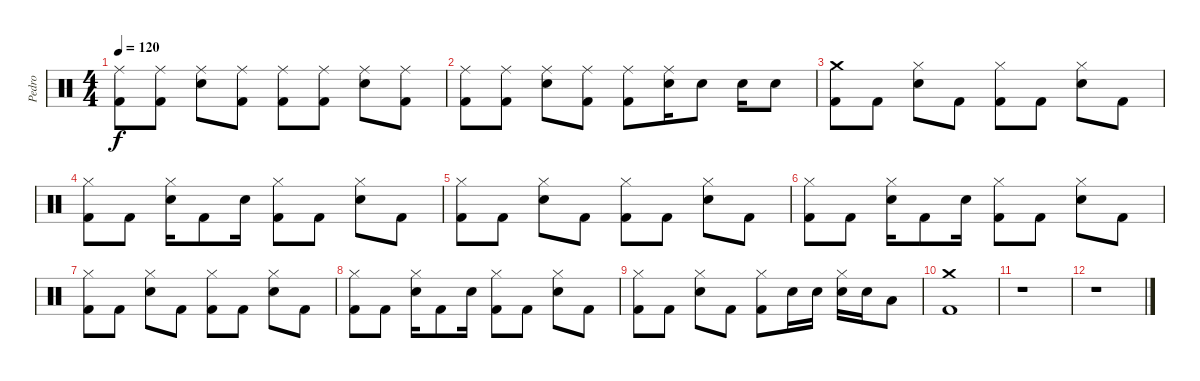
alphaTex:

\track ("Pedro" "Pedro") {instrument percussion}
\staff {score}
\articulation defaults
\ts (4 4)
\tempo 120
\clef neutral
\ks c
("Ride (middle)" "Kick (hit) 2").8{dy f} ("Ride (middle)" "Kick (hit) 2").8 ("Ride (middle)" "Snare (hit) 2").8 ("Ride (middle)" "Kick (hit) 2").8 ("Ride (middle)" "Kick (hit) 2").8 ("Ride (middle)" "Kick (hit) 2").8 ("Ride (middle)" "Snare (hit) 2").8 ("Ride (middle)" "Kick (hit) 2").8 |
("Ride (middle)" "Kick (hit) 2").8 ("Ride (middle)" "Kick (hit) 2").8 ("Ride (middle)" "Snare (hit) 2").8 ("Ride (middle)" "Kick (hit) 2").8 ("Ride (middle)" "Kick (hit) 2").8 ("Ride (middle)" "Snare (hit) 2").16 "Snare (hit) 2".8 "Snare (hit) 2".16 "Snare (hit) 2".8 |
("Crash medium (hit)" "Kick (hit) 2").8 "Kick (hit) 2".8 ("Hi-Hat (closed)" "Snare (hit) 2").8 "Kick (hit) 2".8 ("Hi-Hat (closed)" "Kick (hit) 2").8 "Kick (hit) 2".8 ("Hi-Hat (closed)" "Snare (hit) 2").8 "Kick (hit) 2".8 |
("Hi-Hat (closed)" "Kick (hit) 2").8 "Kick (hit) 2".8 ("Hi-Hat (closed)" "Snare (hit) 2").16 "Kick (hit) 2".8 "Snare (hit) 2".16 ("Hi-Hat (closed)" "Kick (hit) 2").8 "Kick (hit) 2".8 ("Hi-Hat (closed)" "Snare (hit) 2").8 "Kick (hit) 2".8 |
("Hi-Hat (closed)" "Kick (hit) 2").8 "Kick (hit) 2".8 ("Hi-Hat (closed)" "Snare (hit) 2").8 "Kick (hit) 2".8 ("Hi-Hat (closed)" "Kick (hit) 2").8 "Kick (hit) 2".8 ("Hi-Hat (closed)" "Snare (hit) 2").8 "Kick (hit) 2".8 |
("Hi-Hat (closed)" "Kick (hit) 2").8 "Kick (hit) 2".8 ("Hi-Hat (closed)" "Snare (hit) 2").16 "Kick (hit) 2".8 "Snare (hit) 2".16 ("Hi-Hat (closed)" "Kick (hit) 2").8 "Kick (hit) 2".8 ("Hi-Hat (closed)" "Snare (hit) 2").8 "Kick (hit) 2".8 |
("Hi-Hat (closed)" "Kick (hit) 2").8 "Kick (hit) 2".8 ("Hi-Hat (closed)" "Snare (hit) 2").8 "Kick (hit) 2".8 ("Hi-Hat (closed)" "Kick (hit) 2").8 "Kick (hit) 2".8 ("Hi-Hat (closed)" "Snare (hit) 2").8 "Kick (hit) 2".8 |
("Hi-Hat (closed)" "Kick (hit) 2").8 "Kick (hit) 2".8 ("Hi-Hat (closed)" "Snare (hit) 2").16 "Kick (hit) 2".8 "Snare (hit) 2".16 ("Hi-Hat (closed)" "Kick (hit) 2").8 "Kick (hit) 2".8 ("Hi-Hat (closed)" "Snare (hit) 2").8 "Kick (hit) 2".8 |
("Hi-Hat (closed)" "Kick (hit) 2").8 "Kick (hit) 2".8 ("Hi-Hat (closed)" "Snare (hit) 2").8 "Kick (hit) 2".8 ("Hi-Hat (closed)" "Kick (hit) 2").8 "Snare (hit) 2".16 "Snare (hit) 2".16 ("Snare (hit) 2" "Hi-Hat (closed)").16 "Snare (hit) 2".16 "Low Tom (hit)".8 |
("Crash medium (hit)" "Kick (hit) 2").1 |
r.1 |
r.1
